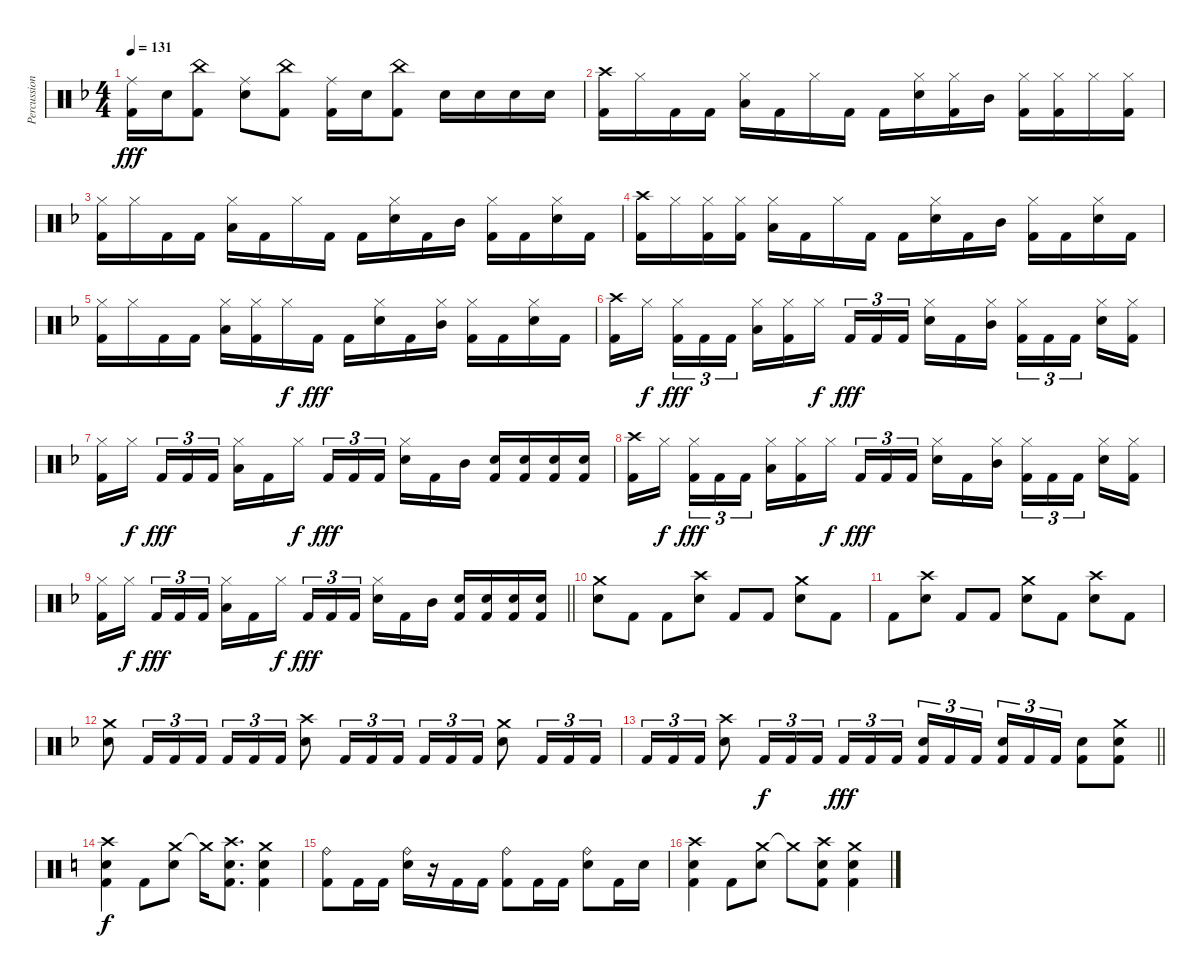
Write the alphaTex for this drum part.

\track ("Percussion" "Percussion") {instrument percussion}
\staff {score}
\articulation defaults
\ts (4 4)
\tempo 131
\clef neutral
\ks f
("Ride (middle)" "Kick (hit) 2").16{dy fff} "Electric Snare (hit)".16 ("China (hit)" "Kick (hit) 2").8 ("Ride (middle)" "Electric Snare (hit)").8 ("China (hit)" "Kick (hit) 2").8 ("Ride (middle)" "Kick (hit) 2").16 "Electric Snare (hit)".16 ("China (hit)" "Kick (hit) 2").8 "Electric Snare (hit)".16 "Electric Snare (hit)".16 "Electric Snare (hit)".16 "Electric Snare (hit)".16 |
("Crash high (hit)" "Kick (hit) 2").16 "Hi-Hat (closed)".16 "Kick (hit) 2".16 "Kick (hit) 2".16 ("Hi-Hat (closed)" "Low Tom (hit)").16 "Kick (hit) 2".16 "Hi-Hat (closed)".16 "Kick (hit) 2".16 "Kick (hit) 2".16 ("Hi-Hat (closed)" "Electric Snare (hit)").16 ("Hi-Hat (closed)" "Kick (hit) 2").16 "Mid Tom (hit)".16 ("Hi-Hat (closed)" "Kick (hit) 2").16 ("Hi-Hat (closed)" "Kick (hit) 2").16 "Hi-Hat (closed)".16 ("Hi-Hat (closed)" "Kick (hit) 2").16 |
("Hi-Hat (closed)" "Kick (hit) 2").16 "Hi-Hat (closed)".16 "Kick (hit) 2".16 "Kick (hit) 2".16 ("Hi-Hat (closed)" "Low Tom (hit)").16 "Kick (hit) 2".16 "Hi-Hat (closed)".16 "Kick (hit) 2".16 "Kick (hit) 2".16 ("Hi-Hat (closed)" "Electric Snare (hit)").16 "Kick (hit) 2".16 "Mid Tom (hit)".16 ("Hi-Hat (closed)" "Kick (hit) 2").16 "Kick (hit) 2".16 ("Hi-Hat (closed)" "Electric Snare (hit)").16 "Kick (hit) 2".16 |
("Crash high (hit)" "Kick (hit) 2").16 "Hi-Hat (closed)".16 ("Hi-Hat (closed)" "Kick (hit) 2").16 ("Hi-Hat (closed)" "Kick (hit) 2").16 ("Hi-Hat (closed)" "Low Tom (hit)").16 "Kick (hit) 2".16 "Hi-Hat (closed)".16 "Kick (hit) 2".16 "Kick (hit) 2".16 ("Hi-Hat (closed)" "Electric Snare (hit)").16 "Kick (hit) 2".16 "Mid Tom (hit)".16 ("Hi-Hat (closed)" "Kick (hit) 2").16 "Kick (hit) 2".16 ("Hi-Hat (closed)" "Electric Snare (hit)").16 "Kick (hit) 2".16 |
("Hi-Hat (closed)" "Kick (hit) 2").16 "Hi-Hat (closed)".16 "Kick (hit) 2".16 "Kick (hit) 2".16 ("Hi-Hat (closed)" "Low Tom (hit)").16 ("Hi-Hat (closed)" "Kick (hit) 2").16 "Hi-Hat (closed)".16{dy f} "Kick (hit) 2".16{dy fff} "Kick (hit) 2".16 ("Hi-Hat (closed)" "Electric Snare (hit)").16 "Kick (hit) 2".16 ("Hi-Hat (closed)" "Mid Tom (hit)").16 ("Hi-Hat (closed)" "Kick (hit) 2").16 "Kick (hit) 2".16 ("Hi-Hat (closed)" "Electric Snare (hit)").16 "Kick (hit) 2".16 |
("Crash high (hit)" "Kick (hit) 2").16 "Hi-Hat (closed)".16{dy f beam splitsecondary} ("Hi-Hat (closed)" "Kick (hit) 2").16{tu (3 2) dy fff} "Kick (hit) 2".16{tu (3 2)} "Kick (hit) 2".16{tu (3 2)} ("Hi-Hat (closed)" "Low Tom (hit)").16 ("Hi-Hat (closed)" "Kick (hit) 2").16 "Hi-Hat (closed)".16{dy f beam splitsecondary} "Kick (hit) 2".16{tu (3 2) dy fff} "Kick (hit) 2".16{tu (3 2)} "Kick (hit) 2".16{tu (3 2) beam splitsecondary} ("Hi-Hat (closed)" "Electric Snare (hit)").16 "Kick (hit) 2".16 ("Hi-Hat (closed)" "Mid Tom (hit)").16 ("Hi-Hat (closed)" "Kick (hit) 2").16{tu (3 2)} "Kick (hit) 2".16{tu (3 2)} "Kick (hit) 2".16{tu (3 2) beam splitsecondary} ("Hi-Hat (closed)" "Electric Snare (hit)").16 ("Hi-Hat (closed)" "Kick (hit) 2").16 |
("Hi-Hat (closed)" "Kick (hit) 2").16 "Hi-Hat (closed)".16{dy f beam splitsecondary} "Kick (hit) 2".16{tu (3 2) dy fff} "Kick (hit) 2".16{tu (3 2)} "Kick (hit) 2".16{tu (3 2)} ("Hi-Hat (closed)" "Low Tom (hit)").16 "Kick (hit) 2".16 "Hi-Hat (closed)".16{dy f beam splitsecondary} "Kick (hit) 2".16{tu (3 2) dy fff} "Kick (hit) 2".16{tu (3 2)} "Kick (hit) 2".16{tu (3 2) beam splitsecondary} ("Hi-Hat (closed)" "Electric Snare (hit)").16 "Kick (hit) 2".16 "Mid Tom (hit)".16 ("Electric Snare (hit)" "Kick (hit) 2").16 ("Electric Snare (hit)" "Kick (hit) 2").16 ("Electric Snare (hit)" "Kick (hit) 2").16 ("Electric Snare (hit)" "Kick (hit) 2").16 |
("Crash high (hit)" "Kick (hit) 2").16 "Hi-Hat (closed)".16{dy f beam splitsecondary} ("Hi-Hat (closed)" "Kick (hit) 2").16{tu (3 2) dy fff} "Kick (hit) 2".16{tu (3 2)} "Kick (hit) 2".16{tu (3 2)} ("Hi-Hat (closed)" "Low Tom (hit)").16 ("Hi-Hat (closed)" "Kick (hit) 2").16 "Hi-Hat (closed)".16{dy f beam splitsecondary} "Kick (hit) 2".16{tu (3 2) dy fff} "Kick (hit) 2".16{tu (3 2)} "Kick (hit) 2".16{tu (3 2) beam splitsecondary} ("Hi-Hat (closed)" "Electric Snare (hit)").16 "Kick (hit) 2".16 ("Hi-Hat (closed)" "Mid Tom (hit)").16 ("Hi-Hat (closed)" "Kick (hit) 2").16{tu (3 2)} "Kick (hit) 2".16{tu (3 2)} "Kick (hit) 2".16{tu (3 2) beam splitsecondary} ("Hi-Hat (closed)" "Electric Snare (hit)").16 ("Hi-Hat (closed)" "Kick (hit) 2").16 |
\barLineRight lightlight
("Hi-Hat (closed)" "Kick (hit) 2").16 "Hi-Hat (closed)".16{dy f beam splitsecondary} "Kick (hit) 2".16{tu (3 2) dy fff} "Kick (hit) 2".16{tu (3 2)} "Kick (hit) 2".16{tu (3 2)} ("Hi-Hat (closed)" "Low Tom (hit)").16 "Kick (hit) 2".16 "Hi-Hat (closed)".16{dy f beam splitsecondary} "Kick (hit) 2".16{tu (3 2) dy fff} "Kick (hit) 2".16{tu (3 2)} "Kick (hit) 2".16{tu (3 2) beam splitsecondary} ("Hi-Hat (closed)" "Electric Snare (hit)").16 "Kick (hit) 2".16 "Mid Tom (hit)".16 ("Electric Snare (hit)" "Kick (hit) 2").16 ("Electric Snare (hit)" "Kick (hit) 2").16 ("Electric Snare (hit)" "Kick (hit) 2").16 ("Electric Snare (hit)" "Kick (hit) 2").16 |
("Crash medium (hit)" "Electric Snare (hit)").8 "Kick (hit) 2".8 "Kick (hit) 2".8 ("Crash high (hit)" "Electric Snare (hit)").8 "Kick (hit) 2".8 "Kick (hit) 2".8 ("Crash medium (hit)" "Electric Snare (hit)").8 "Kick (hit) 2".8 |
"Kick (hit) 2".8 ("Crash high (hit)" "Electric Snare (hit)").8 "Kick (hit) 2".8 "Kick (hit) 2".8 ("Crash medium (hit)" "Electric Snare (hit)").8 "Kick (hit) 2".8 ("Crash high (hit)" "Electric Snare (hit)").8 "Kick (hit) 2".8 |
("Crash medium (hit)" "Electric Snare (hit)").8 "Kick (hit) 2".16{tu (3 2)} "Kick (hit) 2".16{tu (3 2)} "Kick (hit) 2".16{tu (3 2)} "Kick (hit) 2".16{tu (3 2)} "Kick (hit) 2".16{tu (3 2)} "Kick (hit) 2".16{tu (3 2)} ("Crash high (hit)" "Electric Snare (hit)").8 "Kick (hit) 2".16{tu (3 2)} "Kick (hit) 2".16{tu (3 2)} "Kick (hit) 2".16{tu (3 2) beam splitsecondary} "Kick (hit) 2".16{tu (3 2)} "Kick (hit) 2".16{tu (3 2)} "Kick (hit) 2".16{tu (3 2)} ("Crash medium (hit)" "Electric Snare (hit)").8 "Kick (hit) 2".16{tu (3 2)} "Kick (hit) 2".16{tu (3 2)} "Kick (hit) 2".16{tu (3 2)} |
\barLineRight lightlight "Kick (hit) 2".16{tu (3 2)} "Kick (hit) 2".16{tu (3 2)} "Kick (hit) 2".16{tu (3 2)}
("Crash high (hit)" "Electric Snare (hit)").8 "Kick (hit) 2".16{tu (3 2) dy f} "Kick (hit) 2".16{tu (3 2)} "Kick (hit) 2".16{tu (3 2) beam splitsecondary} "Kick (hit) 2".16{tu (3 2) dy fff} "Kick (hit) 2".16{tu (3 2)} "Kick (hit) 2".16{tu (3 2)} ("Electric Snare (hit)" "Kick (hit) 2").16{tu (3 2)} "Kick (hit) 2".16{tu (3 2)} "Kick (hit) 2".16{tu (3 2) beam splitsecondary} ("Electric Snare (hit)" "Kick (hit) 2").16{tu (3 2)} "Kick (hit) 2".16{tu (3 2)} "Kick (hit) 2".16{tu (3 2)} ("Electric Snare (hit)" "Kick (hit) 2").8 ("Crash medium (hit)" "Electric Snare (hit)" "Kick (hit) 2").8 |
\ks c
("Crash high (hit)" "Electric Snare (hit)" "Kick (hit) 2").4{dy f} "Kick (hit) 2".8 ("Crash medium (hit)" "Electric Snare (hit)").8 "Crash medium (hit)"{t}.16 ("Crash high (hit)" "Electric Snare (hit)" "Kick (hit) 2").8{d} ("Crash medium (hit)" "Electric Snare (hit)" "Kick (hit) 2").4 |
("Ride (bell)" "Kick (hit) 2").8 "Kick (hit) 2".16 "Kick (hit) 2".16 ("Ride (bell)" "Electric Snare (hit)").16 r.16 "Kick (hit) 2".16 "Kick (hit) 2".16 ("Ride (bell)" "Kick (hit) 2").8 "Kick (hit) 2".16 "Kick (hit) 2".16 ("Ride (bell)" "Electric Snare (hit)").8 "Kick (hit) 2".16 "Electric Snare (hit)".16 |
("Crash high (hit)" "Electric Snare (hit)" "Kick (hit) 2").4 "Kick (hit) 2".8 ("Crash medium (hit)" "Electric Snare (hit)").8 "Crash medium (hit)"{t}.8 ("Crash high (hit)" "Electric Snare (hit)" "Kick (hit) 2").8 ("Crash medium (hit)" "Electric Snare (hit)" "Kick (hit) 2").4
